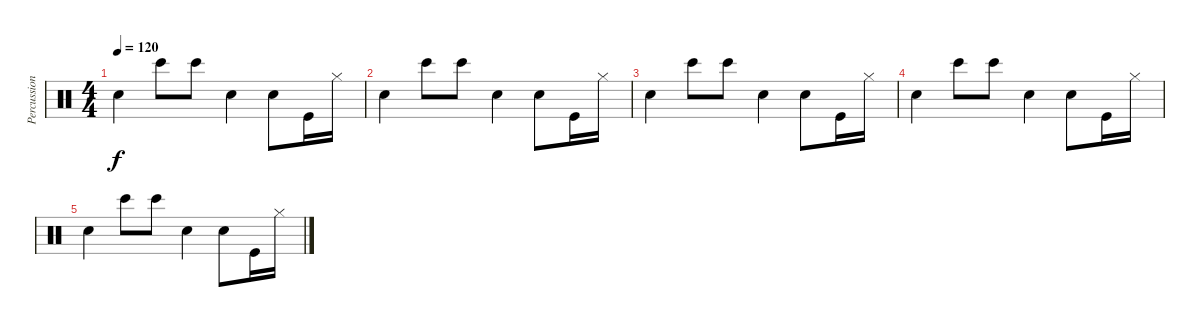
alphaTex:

\track ("Percussion" "Percussion") {instrument percussion}
\staff {score}
\articulation defaults
\ts (4 4)
\tempo 120
\clef neutral
\ks c "Electric Snare (hit)".4{dy f} "Bongo High (hit)".8 "Bongo High (hit)".8 "Electric Snare (hit)".4 "Snare (hit) 2".8 "Kick (hit)".16 "Hi-Hat (closed)".16
|
"Electric Snare (hit)".4 "Bongo High (hit)".8 "Bongo High (hit)".8 "Electric Snare (hit)".4 "Snare (hit) 2".8 "Kick (hit)".16 "Hi-Hat (closed)".16 |
"Electric Snare (hit)".4 "Bongo High (hit)".8 "Bongo High (hit)".8 "Electric Snare (hit)".4 "Snare (hit) 2".8 "Kick (hit)".16 "Hi-Hat (closed)".16 |
"Electric Snare (hit)".4 "Bongo High (hit)".8 "Bongo High (hit)".8 "Electric Snare (hit)".4 "Snare (hit) 2".8 "Kick (hit)".16 "Hi-Hat (closed)".16 |
"Electric Snare (hit)".4 "Bongo High (hit)".8 "Bongo High (hit)".8 "Electric Snare (hit)".4 "Snare (hit) 2".8 "Kick (hit)".16 "Hi-Hat (closed)".16
